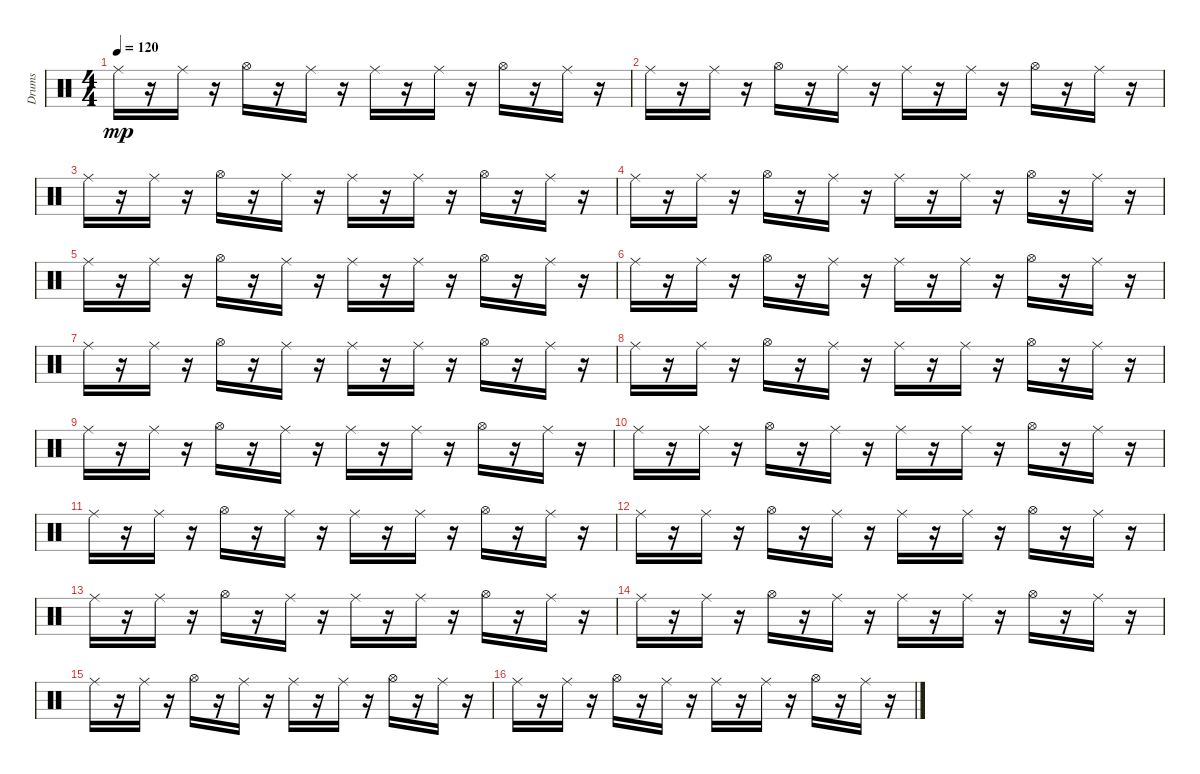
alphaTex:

\track ("Drums" "Drums") {instrument percussion}
\staff {score}
\articulation defaults
\ts (4 4)
\tempo 120
\clef neutral
\ks c "Ride (middle)".16{dy mp}
r.16 "Ride (middle)".16 r.16 "Hi-Hat (open)".16 r.16 "Ride (middle)".16 r.16 "Ride (middle)".16 r.16 "Ride (middle)".16 r.16 "Hi-Hat (open)".16 r.16 "Ride (middle)".16 r.16 |
"Ride (middle)".16 r.16 "Ride (middle)".16 r.16 "Hi-Hat (open)".16 r.16 "Ride (middle)".16 r.16 "Ride (middle)".16 r.16 "Ride (middle)".16 r.16 "Hi-Hat (open)".16 r.16 "Ride (middle)".16 r.16 |
"Ride (middle)".16 r.16 "Ride (middle)".16 r.16 "Hi-Hat (open)".16 r.16 "Ride (middle)".16 r.16 "Ride (middle)".16 r.16 "Ride (middle)".16 r.16 "Hi-Hat (open)".16 r.16 "Ride (middle)".16 r.16 |
"Ride (middle)".16 r.16 "Ride (middle)".16 r.16 "Hi-Hat (open)".16 r.16 "Ride (middle)".16 r.16 "Ride (middle)".16 r.16 "Ride (middle)".16 r.16 "Hi-Hat (open)".16 r.16 "Ride (middle)".16 r.16 |
"Ride (middle)".16 r.16 "Ride (middle)".16 r.16 "Hi-Hat (open)".16 r.16 "Ride (middle)".16 r.16 "Ride (middle)".16 r.16 "Ride (middle)".16 r.16 "Hi-Hat (open)".16 r.16 "Ride (middle)".16 r.16 |
"Ride (middle)".16 r.16 "Ride (middle)".16 r.16 "Hi-Hat (open)".16 r.16 "Ride (middle)".16 r.16 "Ride (middle)".16 r.16 "Ride (middle)".16 r.16 "Hi-Hat (open)".16 r.16 "Ride (middle)".16 r.16 |
"Ride (middle)".16 r.16 "Ride (middle)".16 r.16 "Hi-Hat (open)".16 r.16 "Ride (middle)".16 r.16 "Ride (middle)".16 r.16 "Ride (middle)".16 r.16 "Hi-Hat (open)".16 r.16 "Ride (middle)".16 r.16 |
"Ride (middle)".16 r.16 "Ride (middle)".16 r.16 "Hi-Hat (open)".16 r.16 "Ride (middle)".16 r.16 "Ride (middle)".16 r.16 "Ride (middle)".16 r.16 "Hi-Hat (open)".16 r.16 "Ride (middle)".16 r.16 |
"Ride (middle)".16 r.16 "Ride (middle)".16 r.16 "Hi-Hat (open)".16 r.16 "Ride (middle)".16 r.16 "Ride (middle)".16 r.16 "Ride (middle)".16 r.16 "Hi-Hat (open)".16 r.16 "Ride (middle)".16 r.16 |
"Ride (middle)".16 r.16 "Ride (middle)".16 r.16 "Hi-Hat (open)".16 r.16 "Ride (middle)".16 r.16 "Ride (middle)".16 r.16 "Ride (middle)".16 r.16 "Hi-Hat (open)".16 r.16 "Ride (middle)".16 r.16 |
"Ride (middle)".16 r.16 "Ride (middle)".16 r.16 "Hi-Hat (open)".16 r.16 "Ride (middle)".16 r.16 "Ride (middle)".16 r.16 "Ride (middle)".16 r.16 "Hi-Hat (open)".16 r.16 "Ride (middle)".16 r.16 |
"Ride (middle)".16 r.16 "Ride (middle)".16 r.16 "Hi-Hat (open)".16 r.16 "Ride (middle)".16 r.16 "Ride (middle)".16 r.16 "Ride (middle)".16 r.16 "Hi-Hat (open)".16 r.16 "Ride (middle)".16 r.16 |
"Ride (middle)".16 r.16 "Ride (middle)".16 r.16 "Hi-Hat (open)".16 r.16 "Ride (middle)".16 r.16 "Ride (middle)".16 r.16 "Ride (middle)".16 r.16 "Hi-Hat (open)".16 r.16 "Ride (middle)".16 r.16 |
"Ride (middle)".16 r.16 "Ride (middle)".16 r.16 "Hi-Hat (open)".16 r.16 "Ride (middle)".16 r.16 "Ride (middle)".16 r.16 "Ride (middle)".16 r.16 "Hi-Hat (open)".16 r.16 "Ride (middle)".16 r.16 |
"Ride (middle)".16 r.16 "Ride (middle)".16 r.16 "Hi-Hat (open)".16 r.16 "Ride (middle)".16 r.16 "Ride (middle)".16 r.16 "Ride (middle)".16 r.16 "Hi-Hat (open)".16 r.16 "Ride (middle)".16 r.16 |
"Ride (middle)".16 r.16 "Ride (middle)".16 r.16 "Hi-Hat (open)".16 r.16 "Ride (middle)".16 r.16 "Ride (middle)".16 r.16 "Ride (middle)".16 r.16 "Hi-Hat (open)".16 r.16 "Ride (middle)".16 r.16
